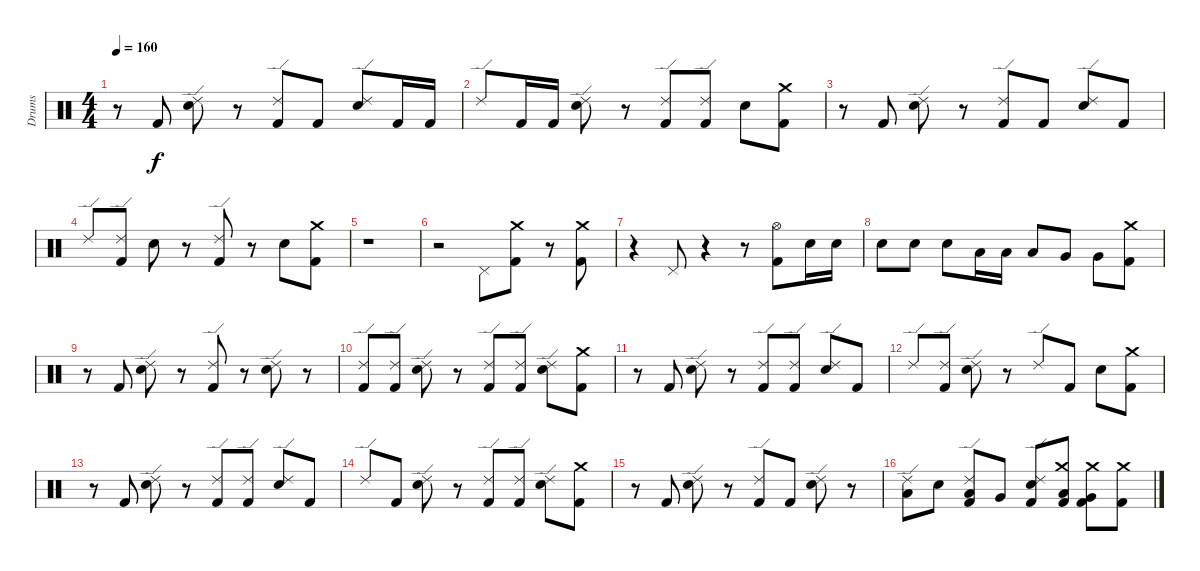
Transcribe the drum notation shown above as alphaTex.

\track ("Drums" "Drums") {instrument percussion}
\staff {score}
\articulation defaults
\ts (4 4)
\tempo 160
\clef neutral
\ks c
r.8{dy f} "Kick (hit) 2".8 ("Ride (edge) 2" "Snare (hit) 2").8 r.8 ("Ride (edge) 2" "Kick (hit) 2").8 "Kick (hit) 2".8 ("Ride (edge) 2" "Snare (hit) 2").8 "Kick (hit) 2".16 "Kick (hit) 2".16 |
"Ride (edge) 2".8 "Kick (hit) 2".16 "Kick (hit) 2".16 ("Ride (edge) 2" "Snare (hit) 2").8 r.8 ("Ride (edge) 2" "Kick (hit) 2").8 ("Ride (edge) 2" "Kick (hit) 2").8 "Snare (hit) 2".8 ("Crash medium (hit)" "Kick (hit) 2").8 |
r.8 "Kick (hit) 2".8 ("Ride (edge) 2" "Snare (hit) 2").8 r.8 ("Ride (edge) 2" "Kick (hit) 2").8 "Kick (hit) 2".8 ("Ride (edge) 2" "Snare (hit) 2").8 "Kick (hit) 2".8 |
"Ride (edge) 2".8 ("Ride (edge) 2" "Kick (hit) 2").8 "Snare (hit) 2".8 r.8 ("Ride (edge) 2" "Kick (hit) 2").8 r.8 "Snare (hit) 2".8 ("Crash medium (hit)" "Kick (hit) 2").8 |
r.1 |
r.2 "Pedal Hi-Hat (hit)".8 ("Crash medium (hit)" "Kick (hit) 2").8 r.8 ("Crash medium (hit)" "Kick (hit) 2").8 |
r.4 "Pedal Hi-Hat (hit)".8 r.4 r.8 ("Hi-Hat (open)" "Kick (hit) 2").8 "Snare (hit) 2".16 "Snare (hit) 2".16 |
"Snare (hit) 2".8 "Snare (hit) 2".8 "Snare (hit) 2".8 "Low Tom (hit)".16 "Low Tom (hit)".16 "Low Tom (hit)".8 "Very Low Tom (hit)".8 "Very Low Tom (hit)".8 ("Crash medium (hit)" "Kick (hit) 2").8 |
r.8 "Kick (hit) 2".8 ("Ride (edge) 2" "Snare (hit) 2").8 r.8 ("Ride (edge) 2" "Kick (hit) 2").8 r.8 ("Ride (edge) 2" "Snare (hit) 2").8 r.8 |
("Ride (edge) 2" "Kick (hit) 2").8 ("Ride (edge) 2" "Kick (hit) 2").8 ("Ride (edge) 2" "Snare (hit) 2").8 r.8 ("Ride (edge) 2" "Kick (hit) 2").8 ("Ride (edge) 2" "Kick (hit) 2").8 ("Ride (edge) 2" "Snare (hit) 2").8 ("Crash medium (hit)" "Kick (hit) 2").8 |
r.8 "Kick (hit) 2".8 ("Ride (edge) 2" "Snare (hit) 2").8 r.8 ("Ride (edge) 2" "Kick (hit) 2").8 ("Ride (edge) 2" "Kick (hit) 2").8 ("Ride (edge) 2" "Snare (hit) 2").8 "Kick (hit) 2".8 |
"Ride (edge) 2".8 ("Ride (edge) 2" "Kick (hit) 2").8 ("Ride (edge) 2" "Snare (hit) 2").8 r.8 "Ride (edge) 2".8 "Kick (hit) 2".8 "Snare (hit) 2".8 ("Crash medium (hit)" "Kick (hit) 2").8 |
r.8 "Kick (hit) 2".8 ("Ride (edge) 2" "Snare (hit) 2").8 r.8 ("Ride (edge) 2" "Kick (hit) 2").8 ("Ride (edge) 2" "Kick (hit) 2").8 ("Ride (edge) 2" "Snare (hit) 2").8 "Kick (hit) 2".8 |
"Ride (edge) 2".8 "Kick (hit) 2".8 ("Ride (edge) 2" "Snare (hit) 2").8 r.8 ("Ride (edge) 2" "Kick (hit) 2").8 ("Ride (edge) 2" "Kick (hit) 2").8 ("Ride (edge) 2" "Snare (hit) 2").8 ("Crash medium (hit)" "Kick (hit) 2").8 |
r.8 "Kick (hit) 2".8 ("Ride (edge) 2" "Snare (hit) 2").8 r.8 ("Ride (edge) 2" "Kick (hit) 2").8 "Kick (hit) 2".8 ("Ride (edge) 2" "Snare (hit) 2").8 r.8 |
("Ride (edge) 2" "Low Tom (hit)").8 "Snare (hit) 2".8 ("Ride (edge) 2" "Low Tom (hit)" "Kick (hit) 2").8 "Very Low Tom (hit)".8 ("Ride (edge) 2" "Snare (hit) 2" "Kick (hit) 2").8 ("Crash medium (hit)" "Low Tom (hit)" "Kick (hit) 2").8 ("Crash medium (hit)" "Very Low Tom (hit)" "Kick (hit) 2").8 ("Crash medium (hit)" "Kick (hit) 2").8
